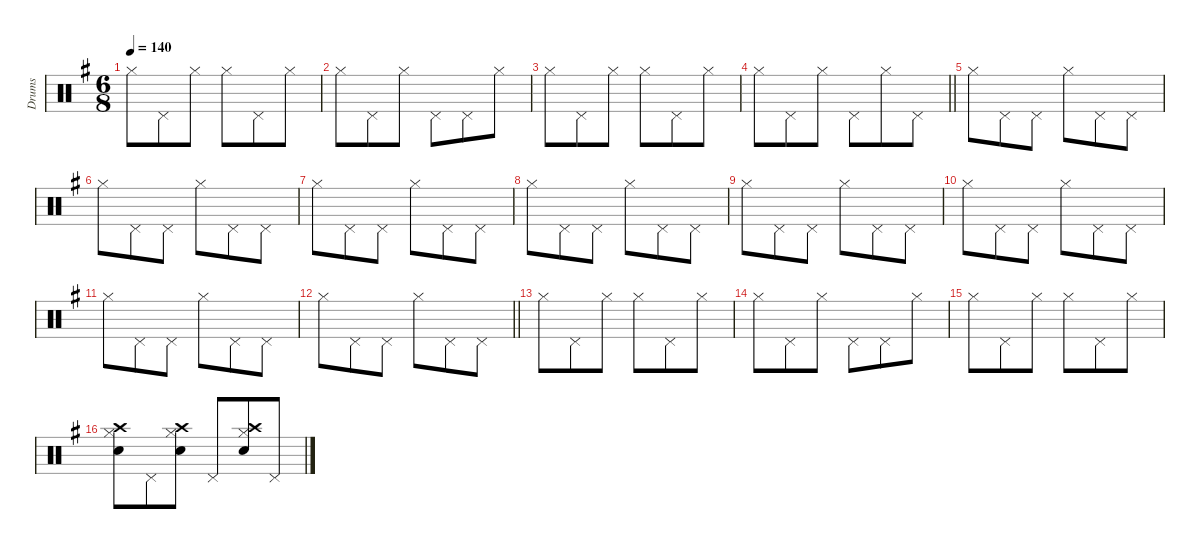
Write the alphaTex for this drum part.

\defaultSystemsLayout 8
\hideDynamics
\bracketExtendMode groupsimilarinstruments
\firstSystemTrackNameMode fullname
\otherSystemsTrackNameOrientation horizontal
\track ("Drums" "drm.") {defaultSystemsLayout 4 instrument percussion}
\staff {score}
\articulation defaults
\ts (6 8)
\tempo 140
\clef neutral
\ks g "Hi-Hat (closed)"{acc forcenatural}.8{dy mp beam Down} "Pedal Hi-Hat (hit)"{acc forcenatural}.8{beam Down} "Hi-Hat (closed)"{acc forcenatural}.8{beam Down} "Hi-Hat (closed)"{acc forcenatural}.8{beam Down} "Pedal Hi-Hat (hit)"{acc forcenatural}.8{beam Down} "Hi-Hat (closed)"{acc forcenatural}.8{beam Down}
|
"Hi-Hat (closed)"{acc forcenatural}.8{beam Down} "Pedal Hi-Hat (hit)"{acc forcenatural}.8{beam Down} "Hi-Hat (closed)"{acc forcenatural}.8{beam Down} "Pedal Hi-Hat (hit)"{acc forcenatural}.8{beam Down} "Pedal Hi-Hat (hit)"{acc forcenatural}.8{beam Down} "Hi-Hat (closed)"{acc forcenatural}.8{beam Down} |
"Hi-Hat (closed)"{acc forcenatural}.8{beam Down} "Pedal Hi-Hat (hit)"{acc forcenatural}.8{beam Down} "Hi-Hat (closed)"{acc forcenatural}.8{beam Down} "Hi-Hat (closed)"{acc forcenatural}.8{beam Down} "Pedal Hi-Hat (hit)"{acc forcenatural}.8{beam Down} "Hi-Hat (closed)"{acc forcenatural}.8{beam Down} |
\barLineRight lightlight "Hi-Hat (closed)"{acc forcenatural}.8{beam Down} "Pedal Hi-Hat (hit)"{acc forcenatural}.8{beam Down} "Hi-Hat (closed)"{acc forcenatural}.8{beam Down} "Pedal Hi-Hat (hit)"{acc forcenatural}.8{beam Down} "Hi-Hat (closed)"{acc forcenatural}.8{beam Down} "Pedal Hi-Hat (hit)"{acc forcenatural}.8{beam Down}
|
"Hi-Hat (closed)"{acc forcenatural}.8{dy f beam Down} "Pedal Hi-Hat (hit)"{acc forcenatural}.8{beam Down} "Pedal Hi-Hat (hit)"{acc forcenatural}.8{beam Down} "Hi-Hat (closed)"{acc forcenatural}.8{beam Down} "Pedal Hi-Hat (hit)"{acc forcenatural}.8{beam Down} "Pedal Hi-Hat (hit)"{acc forcenatural}.8{beam Down} |
"Hi-Hat (closed)"{acc forcenatural}.8{beam Down} "Pedal Hi-Hat (hit)"{acc forcenatural}.8{beam Down} "Pedal Hi-Hat (hit)"{acc forcenatural}.8{beam Down} "Hi-Hat (closed)"{acc forcenatural}.8{beam Down} "Pedal Hi-Hat (hit)"{acc forcenatural}.8{beam Down} "Pedal Hi-Hat (hit)"{acc forcenatural}.8{beam Down} |
"Hi-Hat (closed)"{acc forcenatural}.8{beam Down} "Pedal Hi-Hat (hit)"{acc forcenatural}.8{beam Down} "Pedal Hi-Hat (hit)"{acc forcenatural}.8{beam Down} "Hi-Hat (closed)"{acc forcenatural}.8{beam Down} "Pedal Hi-Hat (hit)"{acc forcenatural}.8{beam Down} "Pedal Hi-Hat (hit)"{acc forcenatural}.8{beam Down} |
"Hi-Hat (closed)"{acc forcenatural}.8{beam Down} "Pedal Hi-Hat (hit)"{acc forcenatural}.8{beam Down} "Pedal Hi-Hat (hit)"{acc forcenatural}.8{beam Down} "Hi-Hat (closed)"{acc forcenatural}.8{beam Down} "Pedal Hi-Hat (hit)"{acc forcenatural}.8{beam Down} "Pedal Hi-Hat (hit)"{acc forcenatural}.8{beam Down} |
"Hi-Hat (closed)"{acc forcenatural}.8{beam Down} "Pedal Hi-Hat (hit)"{acc forcenatural}.8{beam Down} "Pedal Hi-Hat (hit)"{acc forcenatural}.8{beam Down} "Hi-Hat (closed)"{acc forcenatural}.8{beam Down} "Pedal Hi-Hat (hit)"{acc forcenatural}.8{beam Down} "Pedal Hi-Hat (hit)"{acc forcenatural}.8{beam Down} |
"Hi-Hat (closed)"{acc forcenatural}.8{beam Down} "Pedal Hi-Hat (hit)"{acc forcenatural}.8{beam Down} "Pedal Hi-Hat (hit)"{acc forcenatural}.8{beam Down} "Hi-Hat (closed)"{acc forcenatural}.8{beam Down} "Pedal Hi-Hat (hit)"{acc forcenatural}.8{beam Down} "Pedal Hi-Hat (hit)"{acc forcenatural}.8{beam Down} |
"Hi-Hat (closed)"{acc forcenatural}.8{beam Down} "Pedal Hi-Hat (hit)"{acc forcenatural}.8{beam Down} "Pedal Hi-Hat (hit)"{acc forcenatural}.8{beam Down} "Hi-Hat (closed)"{acc forcenatural}.8{beam Down} "Pedal Hi-Hat (hit)"{acc forcenatural}.8{beam Down} "Pedal Hi-Hat (hit)"{acc forcenatural}.8{beam Down} |
\barLineRight lightlight "Hi-Hat (closed)"{acc forcenatural}.8{beam Down} "Pedal Hi-Hat (hit)"{acc forcenatural}.8{beam Down} "Pedal Hi-Hat (hit)"{acc forcenatural}.8{beam Down} "Hi-Hat (closed)"{acc forcenatural}.8{beam Down} "Pedal Hi-Hat (hit)"{acc forcenatural}.8{beam Down} "Pedal Hi-Hat (hit)"{acc forcenatural}.8{beam Down}
|
"Hi-Hat (closed)"{acc forcenatural}.8{beam Down} "Pedal Hi-Hat (hit)"{acc forcenatural}.8{beam Down} "Hi-Hat (closed)"{acc forcenatural}.8{beam Down} "Hi-Hat (closed)"{acc forcenatural}.8{beam Down} "Pedal Hi-Hat (hit)"{acc forcenatural}.8{beam Down} "Hi-Hat (closed)"{acc forcenatural}.8{beam Down} |
"Hi-Hat (closed)"{acc forcenatural}.8{beam Down} "Pedal Hi-Hat (hit)"{acc forcenatural}.8{beam Down} "Hi-Hat (closed)"{acc forcenatural}.8{beam Down} "Pedal Hi-Hat (hit)"{acc forcenatural}.8{beam Down} "Pedal Hi-Hat (hit)"{acc forcenatural}.8{beam Down} "Hi-Hat (closed)"{acc forcenatural}.8{beam Down} |
"Hi-Hat (closed)"{acc forcenatural}.8{beam Down} "Pedal Hi-Hat (hit)"{acc forcenatural}.8{beam Down} "Hi-Hat (closed)"{acc forcenatural}.8{beam Down} "Hi-Hat (closed)"{acc forcenatural}.8{beam Down} "Pedal Hi-Hat (hit)"{acc forcenatural}.8{beam Down} "Hi-Hat (closed)"{acc forcenatural}.8{beam Down} |
("Hi-Hat (closed)"{acc forcenatural} "Snare (hit) 2"{acc forcenatural} "Crash high (hit)"{acc forcenatural}).8{beam Down} "Pedal Hi-Hat (hit)"{acc forcenatural}.8{beam Down} ("Hi-Hat (closed)"{acc forcenatural} "Snare (hit) 2"{acc forcenatural} "Crash high (hit)"{acc forcenatural}).8{beam Down} "Pedal Hi-Hat (hit)"{acc forcenatural}.8{beam Up} ("Hi-Hat (closed)"{acc forcenatural} "Snare (hit) 2"{acc forcenatural} "Crash high (hit)"{acc forcenatural}).8{beam Up} "Pedal Hi-Hat (hit)"{acc forcenatural}.8{beam Up}
